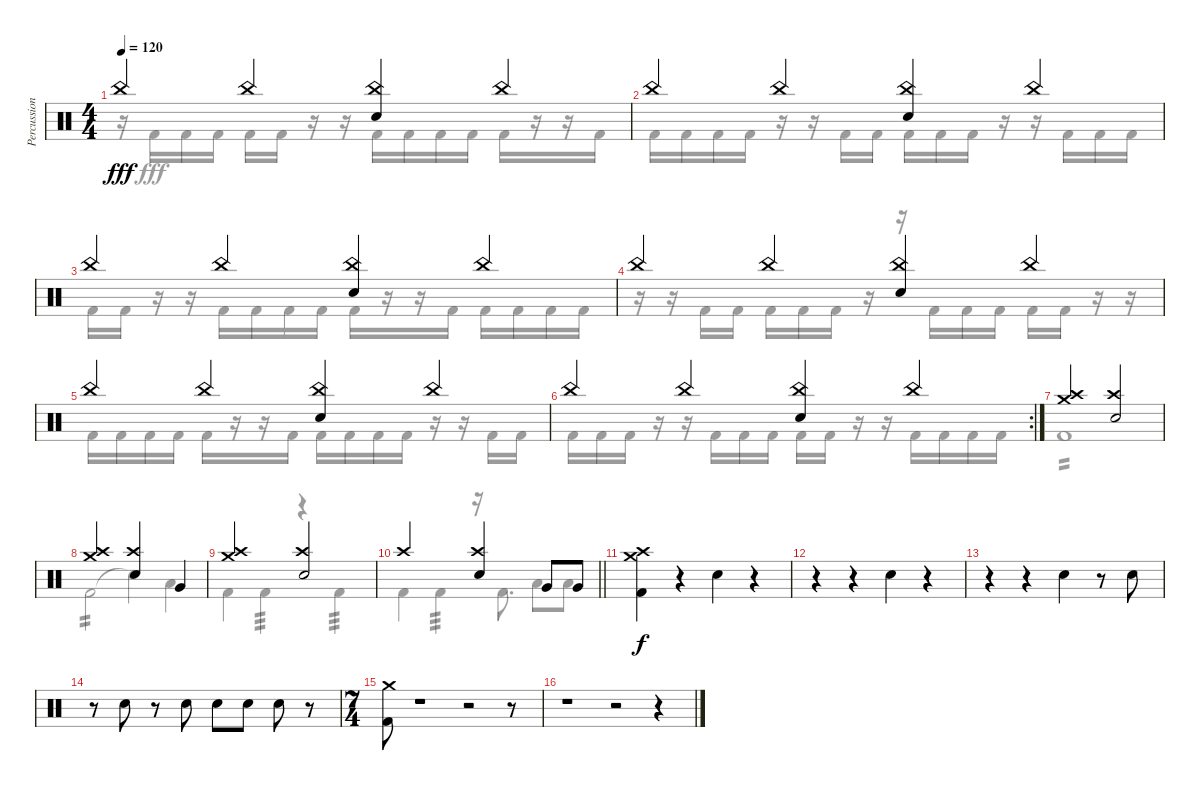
\track ("Percussion" "Percussion") {instrument percussion}
\staff {score}
\articulation defaults
\voice
\ts (4 4)
\tempo 120
\clef neutral
\ks c "China (hit)".4{dy fff} "China (hit)".4
("China (hit)" "Electric Snare (hit)").4 "China (hit)".4 |
"China (hit)".4 "China (hit)".4 ("China (hit)" "Electric Snare (hit)").4 "China (hit)".4 |
"China (hit)".4 "China (hit)".4 ("China (hit)" "Electric Snare (hit)").4 "China (hit)".4 |
"China (hit)".4 "China (hit)".4 ("China (hit)" "Electric Snare (hit)").4 "China (hit)".4 |
"China (hit)".4 "China (hit)".4 ("China (hit)" "Electric Snare (hit)").4 "China (hit)".4 |
\rc 2 "China (hit)".4 "China (hit)".4
("China (hit)" "Electric Snare (hit)").4 "China (hit)".4 |
("Crash high (hit)" "Crash medium (hit)").2 ("Crash high (hit)" "Snare (hit) 2").2 |
("Crash high (hit)" "Crash medium (hit)").2 ("Crash high (hit)" "Snare (hit) 2").4 "Very Low Tom (hit)".4 |
("Crash high (hit)" "Crash medium (hit)").2 ("Crash high (hit)" "Snare (hit) 2").2 |
\barLineRight lightlight "Crash high (hit)".2
("Crash high (hit)" "Snare (hit) 2").4 "Very Low Tom (hit)".8 "Very Low Tom (hit)".8 |
("Crash high (hit)" "Crash medium (hit)" "Kick (hit) 2").4{dy f} r.4 "Snare (hit) 2".4 r.4 |
r.4 r.4 "Snare (hit) 2".4 r.4 |
r.4 r.4 "Snare (hit) 2".4 r.8 "Snare (hit) 2".8 |
r.8 "Snare (hit) 2".8 r.8 "Snare (hit) 2".8 "Snare (hit) 2".8 "Snare (hit) 2".8 "Snare (hit) 2".8 r.8 |
\ts (7 4)
("Crash medium (hit)" "Kick (hit) 2").8 r.1{volume 0} r.2 r.8 |
r.1 r.2 r.4
\voice
\clef neutral
\ottava regular
\simile none
\ks c
r.16{dy fff} "Kick (hit) 2".16 "Kick (hit) 2".16 "Kick (hit) 2".16 "Kick (hit) 2".16 "Kick (hit) 2".16 r.16 r.16 "Kick (hit) 2".16 "Kick (hit) 2".16 "Kick (hit) 2".16 "Kick (hit) 2".16 "Kick (hit) 2".16 r.16 r.16 "Kick (hit) 2".16 |
"Kick (hit) 2".16 "Kick (hit) 2".16 "Kick (hit) 2".16 "Kick (hit) 2".16 r.16 r.16 "Kick (hit) 2".16 "Kick (hit) 2".16 "Kick (hit) 2".16 "Kick (hit) 2".16 "Kick (hit) 2".16 r.16 r.16 "Kick (hit) 2".16 "Kick (hit) 2".16 "Kick (hit) 2".16 |
"Kick (hit) 2".16 "Kick (hit) 2".16 r.16 r.16 "Kick (hit) 2".16 "Kick (hit) 2".16 "Kick (hit) 2".16 "Kick (hit) 2".16 "Kick (hit) 2".16 r.16 r.16 "Kick (hit) 2".16 "Kick (hit) 2".16 "Kick (hit) 2".16 "Kick (hit) 2".16 "Kick (hit) 2".16 |
r.16 r.16 "Kick (hit) 2".16 "Kick (hit) 2".16 "Kick (hit) 2".16 "Kick (hit) 2".16 "Kick (hit) 2".16 r.16 r.16 "Kick (hit) 2".16 "Kick (hit) 2".16 "Kick (hit) 2".16 "Kick (hit) 2".16 "Kick (hit) 2".16 r.16 r.16 |
"Kick (hit) 2".16 "Kick (hit) 2".16 "Kick (hit) 2".16 "Kick (hit) 2".16 "Kick (hit) 2".16 r.16 r.16 "Kick (hit) 2".16 "Kick (hit) 2".16 "Kick (hit) 2".16 "Kick (hit) 2".16 "Kick (hit) 2".16 r.16 r.16 "Kick (hit) 2".16 "Kick (hit) 2".16 |
"Kick (hit) 2".16 "Kick (hit) 2".16 "Kick (hit) 2".16 r.16 r.16 "Kick (hit) 2".16 "Kick (hit) 2".16 "Kick (hit) 2".16 "Kick (hit) 2".16 "Kick (hit) 2".16 r.16 r.16 "Kick (hit) 2".16 "Kick (hit) 2".16 "Kick (hit) 2".16 "Kick (hit) 2".16 |
"Kick (hit) 2".1{tp 2} |
"Kick (hit) 2".2{tp 2} "Snare (hit)"{t}.4 "Low Floor Tom (hit)".4 |
"Kick (hit) 2".4 "Kick (hit) 2".4{tp 3} r.4 "Kick (hit) 2".4{tp 3} |
\barLineRight lightlight "Kick (hit) 2".4 "Kick (hit) 2".4{tp 3}
r.16 "Kick (hit) 2".8{d} "Low Floor Tom (hit)".8 "Low Floor Tom (hit)".8 |
|
|
|
|
|
